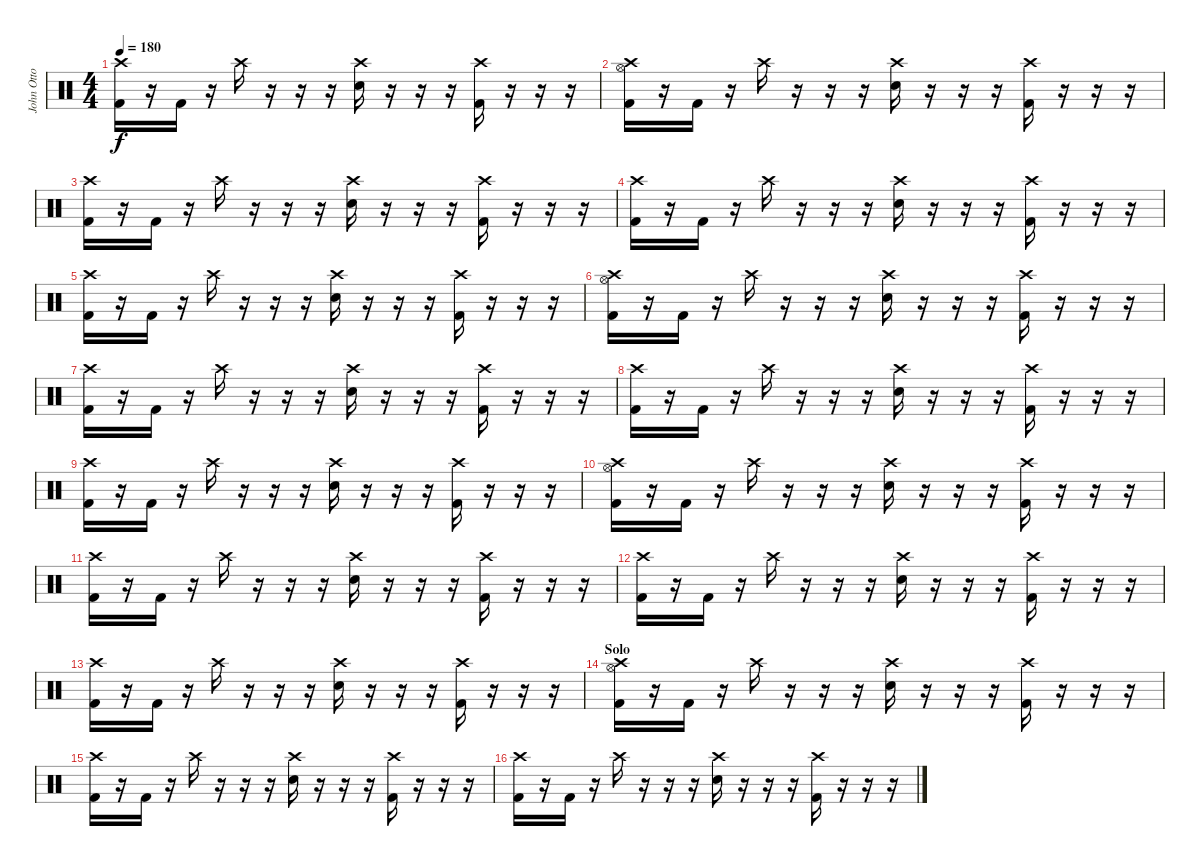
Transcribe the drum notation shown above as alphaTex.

\track ("John Otto" "John Otto") {instrument percussion}
\staff {score}
\articulation defaults
\ts (4 4)
\tempo 180
\clef neutral
\ks c
("Crash high (hit)" "Kick (hit) 2").16{dy f} r.16 "Kick (hit) 2".16 r.16 "Crash high (hit)".16 r.16 r.16 r.16 ("Crash high (hit)" "Snare (hit) 2").16 r.16 r.16 r.16 ("Crash high (hit)" "Kick (hit) 2").16 r.16 r.16 r.16 |
("Crash high (hit)" "Hi-Hat (open)" "Kick (hit) 2").16 r.16 "Kick (hit) 2".16 r.16 "Crash high (hit)".16 r.16 r.16 r.16 ("Crash high (hit)" "Snare (hit) 2").16 r.16 r.16 r.16 ("Crash high (hit)" "Kick (hit) 2").16 r.16 r.16 r.16 |
("Crash high (hit)" "Kick (hit) 2").16 r.16 "Kick (hit) 2".16 r.16 "Crash high (hit)".16 r.16 r.16 r.16 ("Crash high (hit)" "Snare (hit) 2").16 r.16 r.16 r.16 ("Crash high (hit)" "Kick (hit) 2").16 r.16 r.16 r.16 |
("Crash high (hit)" "Kick (hit) 2").16 r.16 "Kick (hit) 2".16 r.16 "Crash high (hit)".16 r.16 r.16 r.16 ("Crash high (hit)" "Snare (hit) 2").16 r.16 r.16 r.16 ("Crash high (hit)" "Kick (hit) 2").16 r.16 r.16 r.16 |
("Crash high (hit)" "Kick (hit) 2").16 r.16 "Kick (hit) 2".16 r.16 "Crash high (hit)".16 r.16 r.16 r.16 ("Crash high (hit)" "Snare (hit) 2").16 r.16 r.16 r.16 ("Crash high (hit)" "Kick (hit) 2").16 r.16 r.16 r.16 |
("Crash high (hit)" "Hi-Hat (open)" "Kick (hit) 2").16 r.16 "Kick (hit) 2".16 r.16 "Crash high (hit)".16 r.16 r.16 r.16 ("Crash high (hit)" "Snare (hit) 2").16 r.16 r.16 r.16 ("Crash high (hit)" "Kick (hit) 2").16 r.16 r.16 r.16 |
("Crash high (hit)" "Kick (hit) 2").16 r.16 "Kick (hit) 2".16 r.16 "Crash high (hit)".16 r.16 r.16 r.16 ("Crash high (hit)" "Snare (hit) 2").16 r.16 r.16 r.16 ("Crash high (hit)" "Kick (hit) 2").16 r.16 r.16 r.16 |
("Crash high (hit)" "Kick (hit) 2").16 r.16 "Kick (hit) 2".16 r.16 "Crash high (hit)".16 r.16 r.16 r.16 ("Crash high (hit)" "Snare (hit) 2").16 r.16 r.16 r.16 ("Crash high (hit)" "Kick (hit) 2").16 r.16 r.16 r.16 |
("Crash high (hit)" "Kick (hit) 2").16 r.16 "Kick (hit) 2".16 r.16 "Crash high (hit)".16 r.16 r.16 r.16 ("Crash high (hit)" "Snare (hit) 2").16 r.16 r.16 r.16 ("Crash high (hit)" "Kick (hit) 2").16 r.16 r.16 r.16 |
("Crash high (hit)" "Hi-Hat (open)" "Kick (hit) 2").16 r.16 "Kick (hit) 2".16 r.16 "Crash high (hit)".16 r.16 r.16 r.16 ("Crash high (hit)" "Snare (hit) 2").16 r.16 r.16 r.16 ("Crash high (hit)" "Kick (hit) 2").16 r.16 r.16 r.16 |
("Crash high (hit)" "Kick (hit) 2").16 r.16 "Kick (hit) 2".16 r.16 "Crash high (hit)".16 r.16 r.16 r.16 ("Crash high (hit)" "Snare (hit) 2").16 r.16 r.16 r.16 ("Crash high (hit)" "Kick (hit) 2").16 r.16 r.16 r.16 |
("Crash high (hit)" "Kick (hit) 2").16 r.16 "Kick (hit) 2".16 r.16 "Crash high (hit)".16 r.16 r.16 r.16 ("Crash high (hit)" "Snare (hit) 2").16 r.16 r.16 r.16 ("Crash high (hit)" "Kick (hit) 2").16 r.16 r.16 r.16 |
("Crash high (hit)" "Kick (hit) 2").16 r.16 "Kick (hit) 2".16 r.16 "Crash high (hit)".16 r.16 r.16 r.16 ("Crash high (hit)" "Snare (hit) 2").16 r.16 r.16 r.16 ("Crash high (hit)" "Kick (hit) 2").16 r.16 r.16 r.16 |
\section ("" "Solo")
("Crash high (hit)" "Hi-Hat (open)" "Kick (hit) 2").16 r.16 "Kick (hit) 2".16 r.16 "Crash high (hit)".16 r.16 r.16 r.16 ("Crash high (hit)" "Snare (hit) 2").16 r.16 r.16 r.16 ("Crash high (hit)" "Kick (hit) 2").16 r.16 r.16 r.16 |
("Crash high (hit)" "Kick (hit) 2").16 r.16 "Kick (hit) 2".16 r.16 "Crash high (hit)".16 r.16 r.16 r.16 ("Crash high (hit)" "Snare (hit) 2").16 r.16 r.16 r.16 ("Crash high (hit)" "Kick (hit) 2").16 r.16 r.16 r.16 |
("Crash high (hit)" "Kick (hit) 2").16 r.16 "Kick (hit) 2".16 r.16 "Crash high (hit)".16 r.16 r.16 r.16 ("Crash high (hit)" "Snare (hit) 2").16 r.16 r.16 r.16 ("Crash high (hit)" "Kick (hit) 2").16 r.16 r.16 r.16
